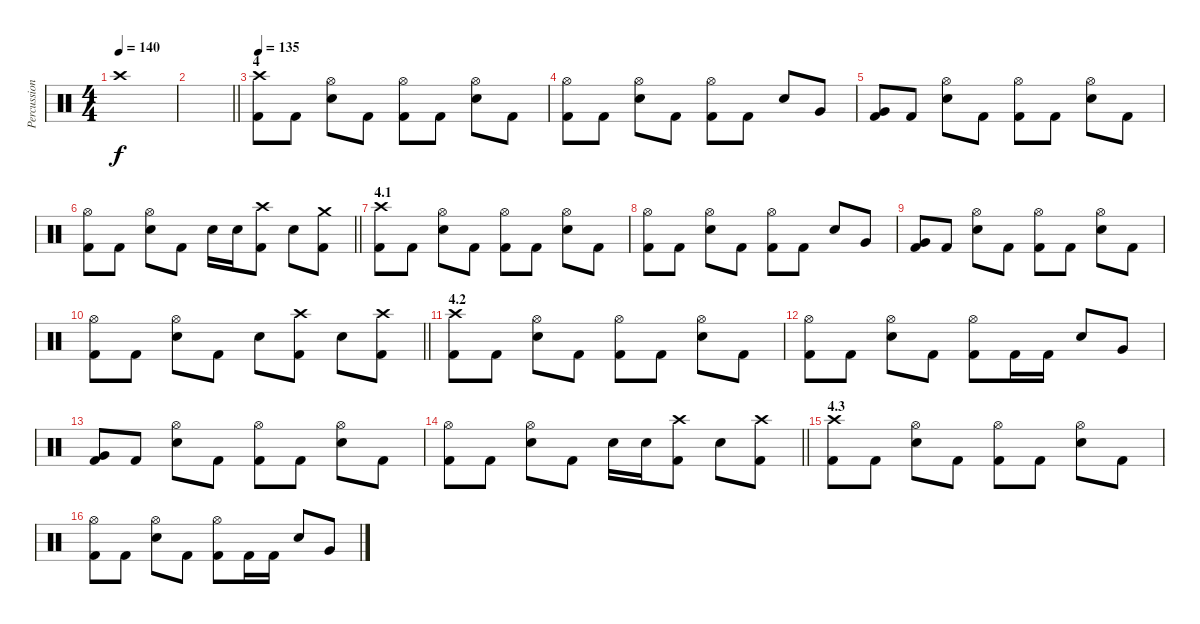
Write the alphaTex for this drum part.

\track ("Percussion" "Percussion") {instrument percussion}
\staff {score}
\articulation defaults
\ts (4 4)
\tempo 140
\clef neutral
\ks c "Crash high (hit)".1{dy f}
|
\barLineRight lightlight
|
\section ("" "4")
\tempo 135
("Kick (hit) 2" "Crash high (hit)").8 "Kick (hit) 2".8 ("Snare (hit) 2" "Hi-Hat (open)").8 "Kick (hit) 2".8 ("Kick (hit) 2" "Hi-Hat (open)").8 "Kick (hit) 2".8 ("Snare (hit) 2" "Hi-Hat (open)").8 "Kick (hit) 2".8 |
("Kick (hit) 2" "Hi-Hat (open)").8 "Kick (hit) 2".8 ("Snare (hit) 2" "Hi-Hat (open)").8 "Kick (hit) 2".8 ("Kick (hit) 2" "Hi-Hat (open)").8 "Kick (hit) 2".8 "Snare (hit) 2".8 "Very Low Tom (hit)".8 |
("Kick (hit) 2" "Very Low Tom (hit)").8 "Kick (hit) 2".8 ("Snare (hit) 2" "Hi-Hat (open)").8 "Kick (hit) 2".8 ("Kick (hit) 2" "Hi-Hat (open)").8 "Kick (hit) 2".8 ("Snare (hit) 2" "Hi-Hat (open)").8 "Kick (hit) 2".8 |
\barLineRight lightlight
("Kick (hit) 2" "Hi-Hat (open)").8 "Kick (hit) 2".8 ("Snare (hit) 2" "Hi-Hat (open)").8 "Kick (hit) 2".8 "Snare (hit) 2".16 "Snare (hit) 2".16 ("Kick (hit) 2" "Crash high (hit)").8 "Snare (hit) 2".8 ("Kick (hit) 2" "Crash medium (hit)").8 |
\section ("" "4.1")
("Kick (hit) 2" "Crash high (hit)").8 "Kick (hit) 2".8 ("Snare (hit) 2" "Hi-Hat (open)").8 "Kick (hit) 2".8 ("Kick (hit) 2" "Hi-Hat (open)").8 "Kick (hit) 2".8 ("Snare (hit) 2" "Hi-Hat (open)").8 "Kick (hit) 2".8 |
("Kick (hit) 2" "Hi-Hat (open)").8 "Kick (hit) 2".8 ("Snare (hit) 2" "Hi-Hat (open)").8 "Kick (hit) 2".8 ("Kick (hit) 2" "Hi-Hat (open)").8 "Kick (hit) 2".8 "Snare (hit) 2".8 "Very Low Tom (hit)".8 |
("Kick (hit) 2" "Very Low Tom (hit)").8 "Kick (hit) 2".8 ("Snare (hit) 2" "Hi-Hat (open)").8 "Kick (hit) 2".8 ("Kick (hit) 2" "Hi-Hat (open)").8 "Kick (hit) 2".8 ("Snare (hit) 2" "Hi-Hat (open)").8 "Kick (hit) 2".8 |
\barLineRight lightlight
("Kick (hit) 2" "Hi-Hat (open)").8 "Kick (hit) 2".8 ("Snare (hit) 2" "Hi-Hat (open)").8 "Kick (hit) 2".8 "Snare (hit) 2".8 ("Kick (hit) 2" "Crash high (hit)").8 "Snare (hit) 2".8 ("Kick (hit) 2" "Crash high (hit)").8 |
\section ("" "4.2")
("Kick (hit) 2" "Crash high (hit)").8 "Kick (hit) 2".8 ("Snare (hit) 2" "Hi-Hat (open)").8 "Kick (hit) 2".8 ("Kick (hit) 2" "Hi-Hat (open)").8 "Kick (hit) 2".8 ("Snare (hit) 2" "Hi-Hat (open)").8 "Kick (hit) 2".8 |
("Kick (hit) 2" "Hi-Hat (open)").8 "Kick (hit) 2".8 ("Snare (hit) 2" "Hi-Hat (open)").8 "Kick (hit) 2".8 ("Kick (hit) 2" "Hi-Hat (open)").8 "Kick (hit) 2".16 "Kick (hit) 2".16 "Snare (hit) 2".8 "Very Low Tom (hit)".8 |
("Kick (hit) 2" "Very Low Tom (hit)").8 "Kick (hit) 2".8 ("Snare (hit) 2" "Hi-Hat (open)").8 "Kick (hit) 2".8 ("Kick (hit) 2" "Hi-Hat (open)").8 "Kick (hit) 2".8 ("Snare (hit) 2" "Hi-Hat (open)").8 "Kick (hit) 2".8 |
\barLineRight lightlight
("Kick (hit) 2" "Hi-Hat (open)").8 "Kick (hit) 2".8 ("Snare (hit) 2" "Hi-Hat (open)").8 "Kick (hit) 2".8 "Snare (hit) 2".16 "Snare (hit) 2".16 ("Kick (hit) 2" "Crash high (hit)").8 "Snare (hit) 2".8 ("Kick (hit) 2" "Crash high (hit)").8 |
\section ("" "4.3")
("Kick (hit) 2" "Crash high (hit)").8 "Kick (hit) 2".8 ("Snare (hit) 2" "Hi-Hat (open)").8 "Kick (hit) 2".8 ("Kick (hit) 2" "Hi-Hat (open)").8 "Kick (hit) 2".8 ("Snare (hit) 2" "Hi-Hat (open)").8 "Kick (hit) 2".8 |
("Kick (hit) 2" "Hi-Hat (open)").8 "Kick (hit) 2".8 ("Snare (hit) 2" "Hi-Hat (open)").8 "Kick (hit) 2".8 ("Kick (hit) 2" "Hi-Hat (open)").8 "Kick (hit) 2".16 "Kick (hit) 2".16 "Snare (hit) 2".8 "Very Low Tom (hit)".8
